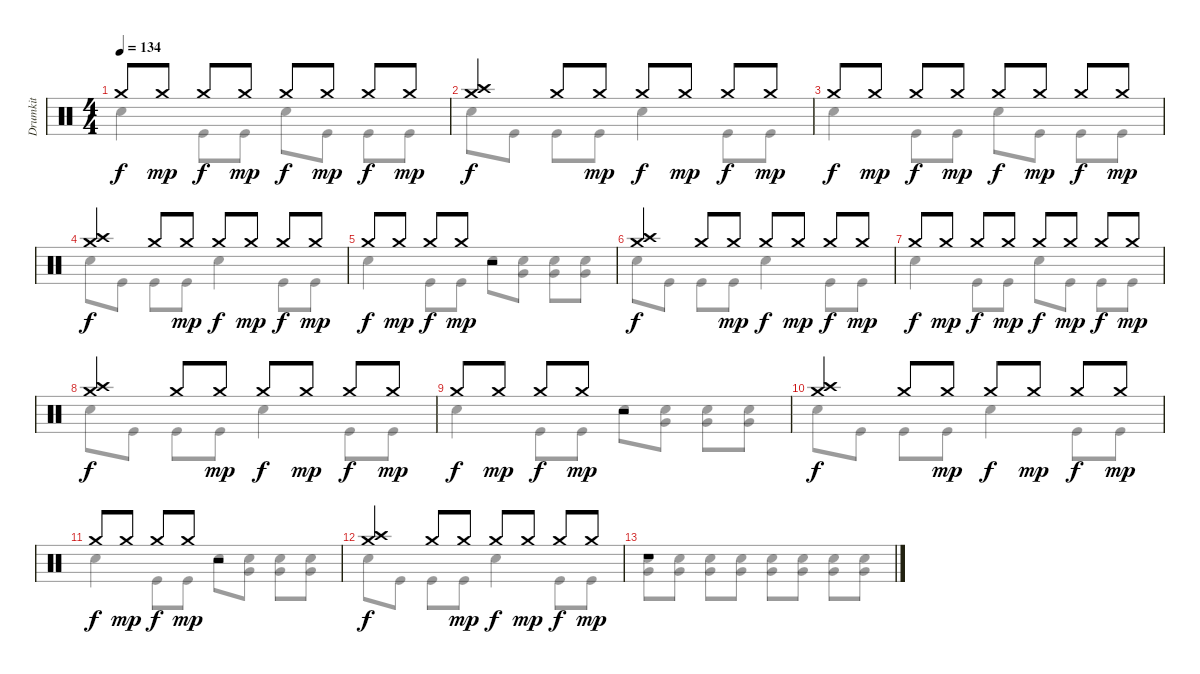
\track ("Drumkit" "Drumkit") {instrument percussion}
\staff {score}
\articulation defaults
\voice
\ts (4 4)
\tempo 134
\clef neutral
\ks c "Crash medium (hit)".8{dy f} "Crash medium (hit)".8{dy mp} "Crash medium (hit)".8{dy f} "Crash medium (hit)".8{dy mp} "Crash medium (hit)".8{dy f} "Crash medium (hit)".8{dy mp} "Crash medium (hit)".8{dy f} "Crash medium (hit)".8{dy mp}
|
("Crash medium (hit)" "Crash high (hit)").4{dy f} "Crash medium (hit)".8 "Crash medium (hit)".8{dy mp} "Crash medium (hit)".8{dy f} "Crash medium (hit)".8{dy mp} "Crash medium (hit)".8{dy f} "Crash medium (hit)".8{dy mp} |
"Crash medium (hit)".8{dy f} "Crash medium (hit)".8{dy mp} "Crash medium (hit)".8{dy f} "Crash medium (hit)".8{dy mp} "Crash medium (hit)".8{dy f} "Crash medium (hit)".8{dy mp} "Crash medium (hit)".8{dy f} "Crash medium (hit)".8{dy mp} |
("Crash medium (hit)" "Crash high (hit)").4{dy f} "Crash medium (hit)".8 "Crash medium (hit)".8{dy mp} "Crash medium (hit)".8{dy f} "Crash medium (hit)".8{dy mp} "Crash medium (hit)".8{dy f} "Crash medium (hit)".8{dy mp} |
"Crash medium (hit)".8{dy f} "Crash medium (hit)".8{dy mp} "Crash medium (hit)".8{dy f} "Crash medium (hit)".8{dy mp} r.2 |
("Crash medium (hit)" "Crash high (hit)").4{dy f} "Crash medium (hit)".8 "Crash medium (hit)".8{dy mp} "Crash medium (hit)".8{dy f} "Crash medium (hit)".8{dy mp} "Crash medium (hit)".8{dy f} "Crash medium (hit)".8{dy mp} |
"Crash medium (hit)".8{dy f} "Crash medium (hit)".8{dy mp} "Crash medium (hit)".8{dy f} "Crash medium (hit)".8{dy mp} "Crash medium (hit)".8{dy f} "Crash medium (hit)".8{dy mp} "Crash medium (hit)".8{dy f} "Crash medium (hit)".8{dy mp} |
("Crash medium (hit)" "Crash high (hit)").4{dy f} "Crash medium (hit)".8 "Crash medium (hit)".8{dy mp} "Crash medium (hit)".8{dy f} "Crash medium (hit)".8{dy mp} "Crash medium (hit)".8{dy f} "Crash medium (hit)".8{dy mp} |
"Crash medium (hit)".8{dy f} "Crash medium (hit)".8{dy mp} "Crash medium (hit)".8{dy f} "Crash medium (hit)".8{dy mp} r.2 |
("Crash medium (hit)" "Crash high (hit)").4{dy f} "Crash medium (hit)".8 "Crash medium (hit)".8{dy mp} "Crash medium (hit)".8{dy f} "Crash medium (hit)".8{dy mp} "Crash medium (hit)".8{dy f} "Crash medium (hit)".8{dy mp} |
"Crash medium (hit)".8{dy f} "Crash medium (hit)".8{dy mp} "Crash medium (hit)".8{dy f} "Crash medium (hit)".8{dy mp} r.2 |
("Crash medium (hit)" "Crash high (hit)").4{dy f} "Crash medium (hit)".8 "Crash medium (hit)".8{dy mp} "Crash medium (hit)".8{dy f} "Crash medium (hit)".8{dy mp} "Crash medium (hit)".8{dy f} "Crash medium (hit)".8{dy mp} |
r.1
\voice
\clef neutral
\ottava regular
\simile none
\ks c "Snare (hit) 2".4{dy f} "Kick (hit)".8 "Kick (hit)".8 "Snare (hit) 2".8 "Kick (hit)".8 "Kick (hit)".8 "Kick (hit)".8
|
"Snare (hit) 2".8 "Kick (hit)".8 "Kick (hit)".8 "Kick (hit)".8 "Snare (hit) 2".4 "Kick (hit)".8 "Kick (hit)".8 |
"Snare (hit) 2".4 "Kick (hit)".8 "Kick (hit)".8 "Snare (hit) 2".8 "Kick (hit)".8 "Kick (hit)".8 "Kick (hit)".8 |
"Snare (hit) 2".8 "Kick (hit)".8 "Kick (hit)".8 "Kick (hit)".8 "Snare (hit) 2".4 "Kick (hit)".8 "Kick (hit)".8 |
"Snare (hit) 2".4 "Kick (hit)".8 "Kick (hit)".8 "Snare (hit) 2".8 ("Snare (hit) 2" "Very Low Tom (hit)").8 ("Snare (hit) 2" "Very Low Tom (hit)").8 ("Snare (hit) 2" "Very Low Tom (hit)").8 |
"Snare (hit) 2".8 "Kick (hit)".8 "Kick (hit)".8 "Kick (hit)".8 "Snare (hit) 2".4 "Kick (hit)".8 "Kick (hit)".8 |
"Snare (hit) 2".4 "Kick (hit)".8 "Kick (hit)".8 "Snare (hit) 2".8 "Kick (hit)".8 "Kick (hit)".8 "Kick (hit)".8 |
"Snare (hit) 2".8 "Kick (hit)".8 "Kick (hit)".8 "Kick (hit)".8 "Snare (hit) 2".4 "Kick (hit)".8 "Kick (hit)".8 |
"Snare (hit) 2".4 "Kick (hit)".8 "Kick (hit)".8 "Snare (hit) 2".8 ("Snare (hit) 2" "Very Low Tom (hit)").8 ("Snare (hit) 2" "Very Low Tom (hit)").8 ("Snare (hit) 2" "Very Low Tom (hit)").8 |
"Snare (hit) 2".8 "Kick (hit)".8 "Kick (hit)".8 "Kick (hit)".8 "Snare (hit) 2".4 "Kick (hit)".8 "Kick (hit)".8 |
"Snare (hit) 2".4 "Kick (hit)".8 "Kick (hit)".8 "Snare (hit) 2".8 ("Snare (hit) 2" "Very Low Tom (hit)").8 ("Snare (hit) 2" "Very Low Tom (hit)").8 ("Snare (hit) 2" "Very Low Tom (hit)").8 |
"Snare (hit) 2".8 "Kick (hit)".8 "Kick (hit)".8 "Kick (hit)".8 "Snare (hit) 2".4 "Kick (hit)".8 "Kick (hit)".8 |
("Snare (hit) 2" "Very Low Tom (hit)").8 ("Snare (hit) 2" "Very Low Tom (hit)").8 ("Snare (hit) 2" "Very Low Tom (hit)").8 ("Snare (hit) 2" "Very Low Tom (hit)").8 ("Snare (hit) 2" "Very Low Tom (hit)").8 ("Snare (hit) 2" "Very Low Tom (hit)").8 ("Snare (hit) 2" "Very Low Tom (hit)").8 ("Snare (hit) 2" "Very Low Tom (hit)").8
